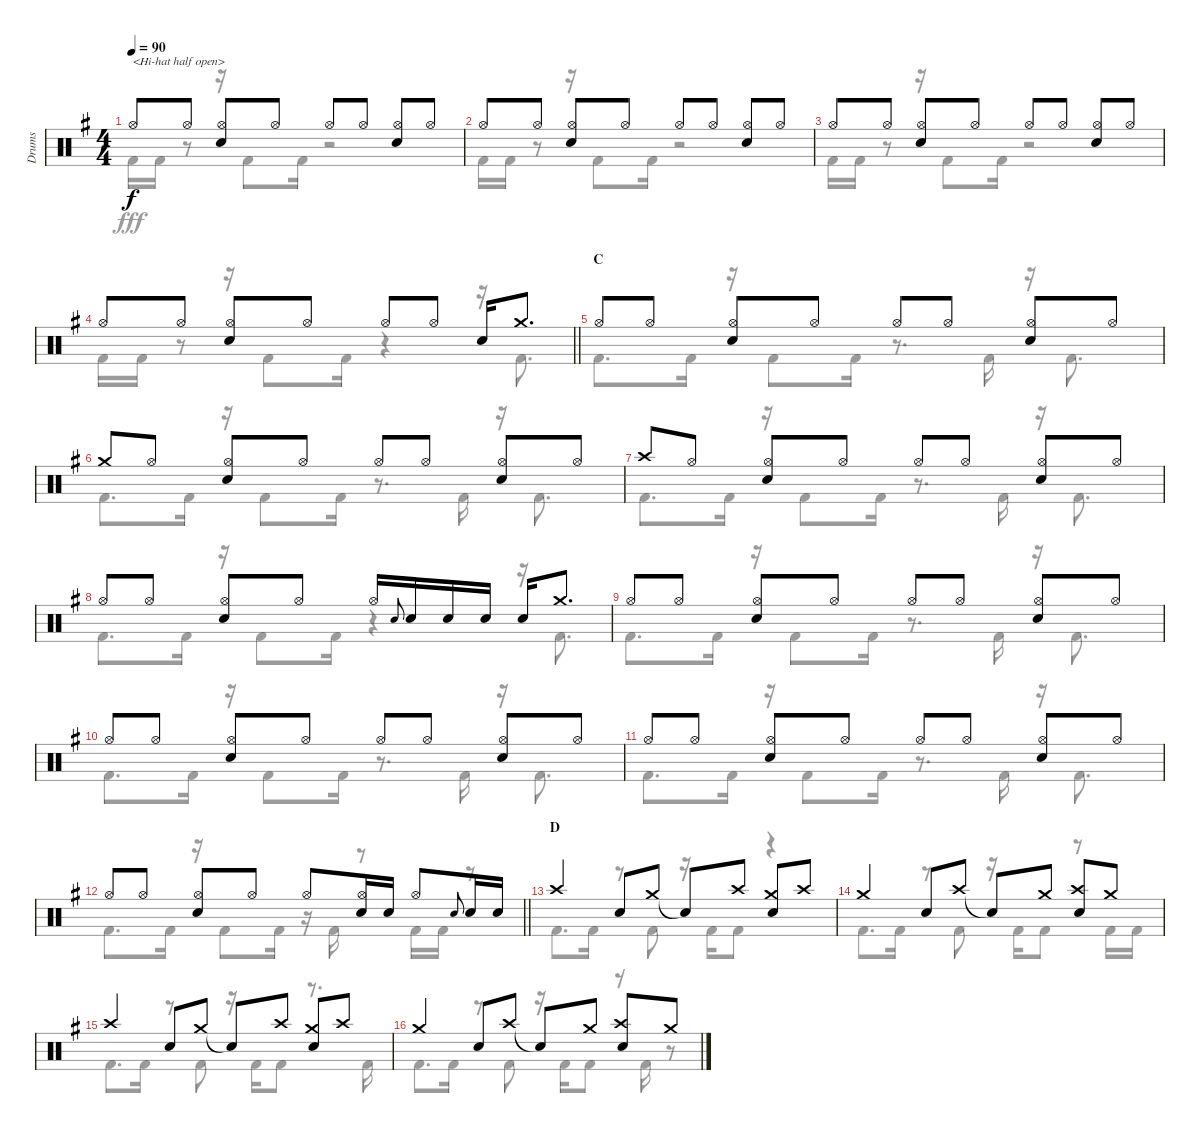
\track ("Drums" "Drums") {instrument percussion}
\staff {score}
\articulation defaults
\voice
\ts (4 4)
\tempo 90
\clef neutral
\ks g "Hi-Hat (open)".8{txt "<Hi-hat half open>" dy f} "Hi-Hat (open)".8
("Hi-Hat (open)" "Snare (hit) 2").8 "Hi-Hat (open)".8 "Hi-Hat (open)".8 "Hi-Hat (open)".8 ("Hi-Hat (open)" "Snare (hit) 2").8 "Hi-Hat (open)".8 |
"Hi-Hat (open)".8 "Hi-Hat (open)".8 ("Hi-Hat (open)" "Snare (hit) 2").8 "Hi-Hat (open)".8 "Hi-Hat (open)".8 "Hi-Hat (open)".8 ("Hi-Hat (open)" "Snare (hit) 2").8 "Hi-Hat (open)".8 |
"Hi-Hat (open)".8 "Hi-Hat (open)".8 ("Hi-Hat (open)" "Snare (hit) 2").8 "Hi-Hat (open)".8 "Hi-Hat (open)".8 "Hi-Hat (open)".8 ("Hi-Hat (open)" "Snare (hit) 2").8 "Hi-Hat (open)".8 |
\barLineRight lightlight "Hi-Hat (open)".8 "Hi-Hat (open)".8
("Hi-Hat (open)" "Snare (hit) 2").8 "Hi-Hat (open)".8 "Hi-Hat (open)".8 "Hi-Hat (open)".8 "Snare (hit) 2".16 "Crash medium (hit)".8{d} |
\section ("" "C")
"Hi-Hat (open)".8 "Hi-Hat (open)".8 ("Hi-Hat (open)" "Snare (hit) 2").8 "Hi-Hat (open)".8 "Hi-Hat (open)".8 "Hi-Hat (open)".8 ("Hi-Hat (open)" "Snare (hit) 2").8 "Hi-Hat (open)".8 |
"Crash medium (hit)".8 "Hi-Hat (open)".8 ("Hi-Hat (open)" "Snare (hit) 2").8 "Hi-Hat (open)".8 "Hi-Hat (open)".8 "Hi-Hat (open)".8 ("Hi-Hat (open)" "Snare (hit) 2").8 "Hi-Hat (open)".8 |
"Crash high (hit)".8 "Hi-Hat (open)".8 ("Hi-Hat (open)" "Snare (hit) 2").8 "Hi-Hat (open)".8 "Hi-Hat (open)".8 "Hi-Hat (open)".8 ("Hi-Hat (open)" "Snare (hit) 2").8 "Hi-Hat (open)".8 |
"Hi-Hat (open)".8 "Hi-Hat (open)".8 ("Hi-Hat (open)" "Snare (hit) 2").8 "Hi-Hat (open)".8 "Hi-Hat (open)".16 "Snare (hit) 2".8{gr onbeat} "Snare (hit) 2".16 "Snare (hit) 2".16 "Snare (hit) 2".16 "Snare (hit) 2".16 "Crash medium (hit)".8{d} |
"Hi-Hat (open)".8 "Hi-Hat (open)".8 ("Hi-Hat (open)" "Snare (hit) 2").8 "Hi-Hat (open)".8 "Hi-Hat (open)".8 "Hi-Hat (open)".8 ("Hi-Hat (open)" "Snare (hit) 2").8 "Hi-Hat (open)".8 |
"Hi-Hat (open)".8 "Hi-Hat (open)".8 ("Hi-Hat (open)" "Snare (hit) 2").8 "Hi-Hat (open)".8 "Hi-Hat (open)".8 "Hi-Hat (open)".8 ("Hi-Hat (open)" "Snare (hit) 2").8 "Hi-Hat (open)".8 |
"Hi-Hat (open)".8 "Hi-Hat (open)".8 ("Hi-Hat (open)" "Snare (hit) 2").8 "Hi-Hat (open)".8 "Hi-Hat (open)".8 "Hi-Hat (open)".8 ("Hi-Hat (open)" "Snare (hit) 2").8 "Hi-Hat (open)".8 |
\barLineRight lightlight "Hi-Hat (open)".8 "Hi-Hat (open)".8
("Hi-Hat (open)" "Snare (hit) 2").8 "Hi-Hat (open)".8 "Hi-Hat (open)".8 ("Hi-Hat (open)" "Snare (hit) 2").16 "Snare (hit) 2".16 "Hi-Hat (open)".8 "Snare (hit) 2".8{gr onbeat} "Snare (hit) 2".16 "Snare (hit) 2".16 |
\section ("" "D")
"Crash high (hit)".4 "Snare (hit) 2".8 "Crash medium (hit)".8 "Snare (hit)"{t}.8 "Crash high (hit)".8 ("Crash medium (hit)" "Snare (hit) 2").8 "Crash high (hit)".8 |
"Crash medium (hit)".4 "Snare (hit) 2".8 "Crash high (hit)".8 "Snare (hit)"{t}.8 "Crash medium (hit)".8 ("Crash high (hit)" "Snare (hit) 2").8 "Crash medium (hit)".8 |
"Crash high (hit)".4 "Snare (hit) 2".8 "Crash medium (hit)".8 "Snare (hit)"{t}.8 "Crash high (hit)".8 ("Crash medium (hit)" "Snare (hit) 2").8 "Crash high (hit)".8 |
"Crash medium (hit)".4 "Snare (hit) 2".8 "Crash high (hit)".8 "Snare (hit)"{t}.8 "Crash medium (hit)".8 ("Crash high (hit)" "Snare (hit) 2").8 "Crash medium (hit)".8
\voice
\clef neutral
\ottava regular
\simile none
\ks g "Kick (hit) 2".16{dy fff} "Kick (hit) 2".16
r.8 r.16 "Kick (hit) 2".8 "Kick (hit) 2".16 r.2 |
"Kick (hit) 2".16 "Kick (hit) 2".16 r.8 r.16 "Kick (hit) 2".8 "Kick (hit) 2".16 r.2 |
"Kick (hit) 2".16 "Kick (hit) 2".16 r.8 r.16 "Kick (hit) 2".8 "Kick (hit) 2".16 r.2 |
\barLineRight lightlight "Kick (hit) 2".16 "Kick (hit) 2".16
r.8 r.16 "Kick (hit) 2".8 "Kick (hit) 2".16 r.4 r.16 "Kick (hit) 2".8{d} |
"Kick (hit) 2".8{d} "Kick (hit) 2".16 r.16 "Kick (hit) 2".8 "Kick (hit) 2".16 r.8{d} "Kick (hit) 2".16 r.16 "Kick (hit) 2".8{d} |
"Kick (hit) 2".8{d} "Kick (hit) 2".16 r.16 "Kick (hit) 2".8 "Kick (hit) 2".16 r.8{d} "Kick (hit) 2".16 r.16 "Kick (hit) 2".8{d} |
"Kick (hit) 2".8{d} "Kick (hit) 2".16 r.16 "Kick (hit) 2".8 "Kick (hit) 2".16 r.8{d} "Kick (hit) 2".16 r.16 "Kick (hit) 2".8{d} |
"Kick (hit) 2".8{d} "Kick (hit) 2".16 r.16 "Kick (hit) 2".8 "Kick (hit) 2".16 r.4 r.16 "Kick (hit) 2".8{d} |
"Kick (hit) 2".8{d} "Kick (hit) 2".16 r.16 "Kick (hit) 2".8 "Kick (hit) 2".16 r.8{d} "Kick (hit) 2".16 r.16 "Kick (hit) 2".8{d} |
"Kick (hit) 2".8{d} "Kick (hit) 2".16 r.16 "Kick (hit) 2".8 "Kick (hit) 2".16 r.8{d} "Kick (hit) 2".16 r.16 "Kick (hit) 2".8{d} |
"Kick (hit) 2".8{d} "Kick (hit) 2".16 r.16 "Kick (hit) 2".8 "Kick (hit) 2".16 r.8{d} "Kick (hit) 2".16 r.16 "Kick (hit) 2".8{d} |
\barLineRight lightlight "Kick (hit) 2".8{d} "Kick (hit) 2".16
r.16 "Kick (hit) 2".8 "Kick (hit) 2".16 r.16 "Kick (hit) 2".16 r.8 "Kick (hit) 2".16 "Kick (hit) 2".16 r.8 |
"Kick (hit) 2".8{d} "Kick (hit) 2".16 r.8 "Kick (hit) 2".8 r.16 "Kick (hit) 2".16 "Kick (hit) 2".8 r.4 |
"Kick (hit) 2".8{d} "Kick (hit) 2".16 r.8 "Kick (hit) 2".8 r.16 "Kick (hit) 2".16 "Kick (hit) 2".8 r.8 "Kick (hit) 2".16 "Kick (hit) 2".16 |
"Kick (hit) 2".8{d} "Kick (hit) 2".16 r.8 "Kick (hit) 2".8 r.16 "Kick (hit) 2".16 "Kick (hit) 2".8 r.8{d} "Kick (hit) 2".16 |
"Kick (hit) 2".8{d} "Kick (hit) 2".16 r.8 "Kick (hit) 2".8 r.16 "Kick (hit) 2".16 "Kick (hit) 2".8 r.16 "Kick (hit) 2".16 r.8
